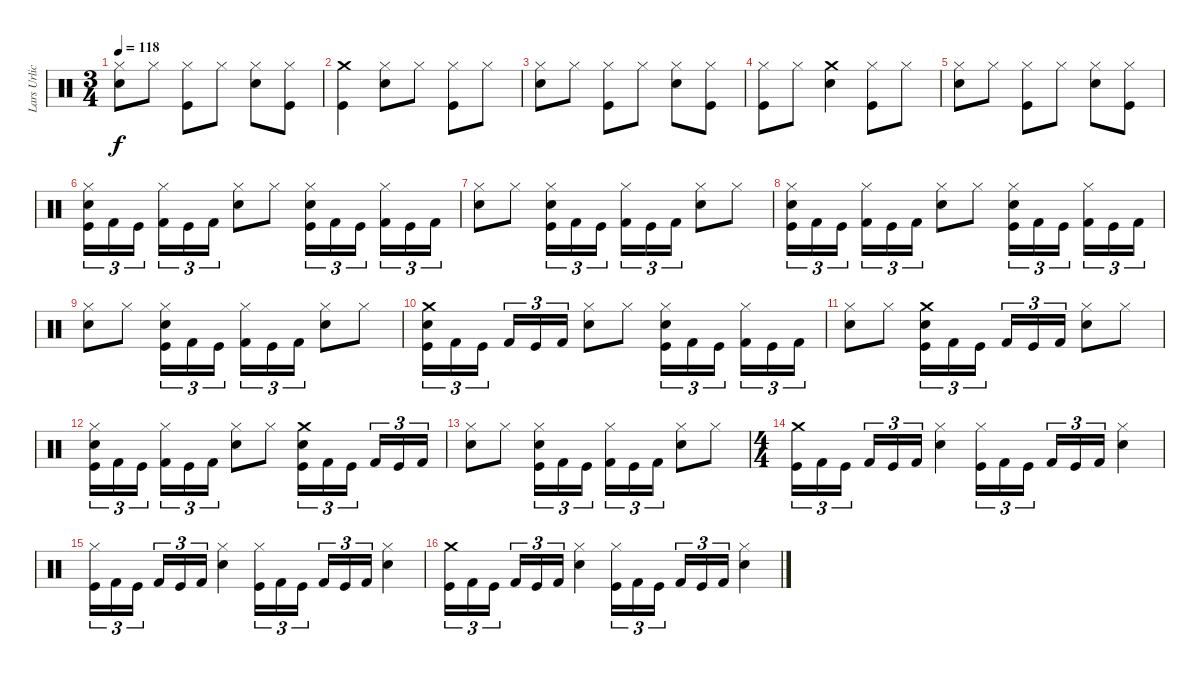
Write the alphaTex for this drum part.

\track ("Lars Urlich" "Lars Urlic") {instrument percussion}
\staff {score}
\articulation defaults
\ts (3 4)
\tempo 118
\clef neutral
\ks c
("Hi-Hat (closed)" "Snare (hit) 2").8{dy f} "Hi-Hat (closed)".8 ("Hi-Hat (closed)" "Kick (hit)").8 "Hi-Hat (closed)".8 ("Hi-Hat (closed)" "Snare (hit) 2").8 ("Kick (hit)" "Hi-Hat (closed)").8 |
("Kick (hit)" "Crash medium (hit)").4 ("Snare (hit) 2" "Hi-Hat (closed)").8 "Hi-Hat (closed)".8 ("Hi-Hat (closed)" "Kick (hit)").8 "Hi-Hat (closed)".8 |
("Snare (hit) 2" "Hi-Hat (closed)").8 "Hi-Hat (closed)".8 ("Hi-Hat (closed)" "Kick (hit)").8 "Hi-Hat (closed)".8 ("Snare (hit) 2" "Hi-Hat (closed)").8 ("Kick (hit)" "Hi-Hat (closed)").8 |
("Hi-Hat (closed)" "Kick (hit)").8 "Hi-Hat (closed)".8 ("Crash medium (hit)" "Snare (hit) 2").4 ("Hi-Hat (closed)" "Kick (hit)").8 "Hi-Hat (closed)".8 |
("Hi-Hat (closed)" "Snare (hit) 2").8 "Hi-Hat (closed)".8 ("Hi-Hat (closed)" "Kick (hit)").8 "Hi-Hat (closed)".8 ("Hi-Hat (closed)" "Snare (hit) 2").8 ("Kick (hit)" "Hi-Hat (closed)").8 |
("Hi-Hat (closed)" "Snare (hit) 2" "Kick (hit)").16{tu (3 2)} "Kick (hit) 2".16{tu (3 2)} "Kick (hit)".16{tu (3 2)} ("Hi-Hat (closed)" "Kick (hit) 2").16{tu (3 2)} "Kick (hit)".16{tu (3 2)} "Kick (hit) 2".16{tu (3 2)} ("Snare (hit) 2" "Hi-Hat (closed)").8 "Hi-Hat (closed)".8 ("Hi-Hat (closed)" "Snare (hit) 2" "Kick (hit)").16{tu (3 2)} "Kick (hit) 2".16{tu (3 2)} "Kick (hit)".16{tu (3 2)} ("Hi-Hat (closed)" "Kick (hit) 2").16{tu (3 2)} "Kick (hit)".16{tu (3 2)} "Kick (hit) 2".16{tu (3 2)} |
("Hi-Hat (closed)" "Snare (hit) 2").8 "Hi-Hat (closed)".8 ("Hi-Hat (closed)" "Snare (hit) 2" "Kick (hit)").16{tu (3 2)} "Kick (hit) 2".16{tu (3 2)} "Kick (hit)".16{tu (3 2)} ("Hi-Hat (closed)" "Kick (hit) 2").16{tu (3 2)} "Kick (hit)".16{tu (3 2)} "Kick (hit) 2".16{tu (3 2)} ("Snare (hit) 2" "Hi-Hat (closed)").8 "Hi-Hat (closed)".8 |
("Hi-Hat (closed)" "Snare (hit) 2" "Kick (hit)").16{tu (3 2)} "Kick (hit) 2".16{tu (3 2)} "Kick (hit)".16{tu (3 2)} ("Hi-Hat (closed)" "Kick (hit) 2").16{tu (3 2)} "Kick (hit)".16{tu (3 2)} "Kick (hit) 2".16{tu (3 2)} ("Snare (hit) 2" "Hi-Hat (closed)").8 "Hi-Hat (closed)".8 ("Hi-Hat (closed)" "Snare (hit) 2" "Kick (hit)").16{tu (3 2)} "Kick (hit) 2".16{tu (3 2)} "Kick (hit)".16{tu (3 2)} ("Hi-Hat (closed)" "Kick (hit) 2").16{tu (3 2)} "Kick (hit)".16{tu (3 2)} "Kick (hit) 2".16{tu (3 2)} |
("Hi-Hat (closed)" "Snare (hit) 2").8 "Hi-Hat (closed)".8 ("Hi-Hat (closed)" "Snare (hit) 2" "Kick (hit)").16{tu (3 2)} "Kick (hit) 2".16{tu (3 2)} "Kick (hit)".16{tu (3 2)} ("Hi-Hat (closed)" "Kick (hit) 2").16{tu (3 2)} "Kick (hit)".16{tu (3 2)} "Kick (hit) 2".16{tu (3 2)} ("Snare (hit) 2" "Hi-Hat (closed)").8 "Hi-Hat (closed)".8 |
("Crash medium (hit)" "Snare (hit) 2" "Kick (hit)").16{tu (3 2)} "Kick (hit) 2".16{tu (3 2)} "Kick (hit)".16{tu (3 2)} "Kick (hit) 2".16{tu (3 2)} "Kick (hit)".16{tu (3 2)} "Kick (hit) 2".16{tu (3 2)} ("Snare (hit) 2" "Hi-Hat (closed)").8 "Hi-Hat (closed)".8 ("Hi-Hat (closed)" "Snare (hit) 2" "Kick (hit)").16{tu (3 2)} "Kick (hit) 2".16{tu (3 2)} "Kick (hit)".16{tu (3 2)} ("Hi-Hat (closed)" "Kick (hit) 2").16{tu (3 2)} "Kick (hit)".16{tu (3 2)} "Kick (hit) 2".16{tu (3 2)} |
("Hi-Hat (closed)" "Snare (hit) 2").8 "Hi-Hat (closed)".8 ("Crash medium (hit)" "Snare (hit) 2" "Kick (hit)").16{tu (3 2)} "Kick (hit) 2".16{tu (3 2)} "Kick (hit)".16{tu (3 2)} "Kick (hit) 2".16{tu (3 2)} "Kick (hit)".16{tu (3 2)} "Kick (hit) 2".16{tu (3 2)} ("Snare (hit) 2" "Hi-Hat (closed)").8 "Hi-Hat (closed)".8 |
("Hi-Hat (closed)" "Snare (hit) 2" "Kick (hit)").16{tu (3 2)} "Kick (hit) 2".16{tu (3 2)} "Kick (hit)".16{tu (3 2)} ("Hi-Hat (closed)" "Kick (hit) 2").16{tu (3 2)} "Kick (hit)".16{tu (3 2)} "Kick (hit) 2".16{tu (3 2)} ("Snare (hit) 2" "Hi-Hat (closed)").8 "Hi-Hat (closed)".8 ("Crash medium (hit)" "Snare (hit) 2" "Kick (hit)").16{tu (3 2)} "Kick (hit) 2".16{tu (3 2)} "Kick (hit)".16{tu (3 2)} "Kick (hit) 2".16{tu (3 2)} "Kick (hit)".16{tu (3 2)} "Kick (hit) 2".16{tu (3 2)} |
("Hi-Hat (closed)" "Snare (hit) 2").8 "Hi-Hat (closed)".8 ("Hi-Hat (closed)" "Snare (hit) 2" "Kick (hit)").16{tu (3 2)} "Kick (hit) 2".16{tu (3 2)} "Kick (hit)".16{tu (3 2)} ("Hi-Hat (closed)" "Kick (hit) 2").16{tu (3 2)} "Kick (hit)".16{tu (3 2)} "Kick (hit) 2".16{tu (3 2)} ("Snare (hit) 2" "Hi-Hat (closed)").8 "Hi-Hat (closed)".8 |
\ts (4 4)
("Crash medium (hit)" "Kick (hit)").16{tu (3 2)} "Kick (hit) 2".16{tu (3 2)} "Kick (hit)".16{tu (3 2)} "Kick (hit) 2".16{tu (3 2)} "Kick (hit)".16{tu (3 2)} "Kick (hit) 2".16{tu (3 2)} ("Snare (hit) 2" "Hi-Hat (closed)").4 ("Hi-Hat (closed)" "Kick (hit)").16{tu (3 2)} "Kick (hit) 2".16{tu (3 2)} "Kick (hit)".16{tu (3 2)} "Kick (hit) 2".16{tu (3 2)} "Kick (hit)".16{tu (3 2)} "Kick (hit) 2".16{tu (3 2)} ("Snare (hit) 2" "Hi-Hat (closed)").4 |
("Hi-Hat (closed)" "Kick (hit)").16{tu (3 2)} "Kick (hit) 2".16{tu (3 2)} "Kick (hit)".16{tu (3 2)} "Kick (hit) 2".16{tu (3 2)} "Kick (hit)".16{tu (3 2)} "Kick (hit) 2".16{tu (3 2)} ("Snare (hit) 2" "Hi-Hat (closed)").4 ("Hi-Hat (closed)" "Kick (hit)").16{tu (3 2)} "Kick (hit) 2".16{tu (3 2)} "Kick (hit)".16{tu (3 2)} "Kick (hit) 2".16{tu (3 2)} "Kick (hit)".16{tu (3 2)} "Kick (hit) 2".16{tu (3 2)} ("Snare (hit) 2" "Hi-Hat (closed)").4 |
("Crash medium (hit)" "Kick (hit)").16{tu (3 2)} "Kick (hit) 2".16{tu (3 2)} "Kick (hit)".16{tu (3 2)} "Kick (hit) 2".16{tu (3 2)} "Kick (hit)".16{tu (3 2)} "Kick (hit) 2".16{tu (3 2)} ("Snare (hit) 2" "Hi-Hat (closed)").4 ("Hi-Hat (closed)" "Kick (hit)").16{tu (3 2)} "Kick (hit) 2".16{tu (3 2)} "Kick (hit)".16{tu (3 2)} "Kick (hit) 2".16{tu (3 2)} "Kick (hit)".16{tu (3 2)} "Kick (hit) 2".16{tu (3 2)} ("Snare (hit) 2" "Hi-Hat (closed)").4
